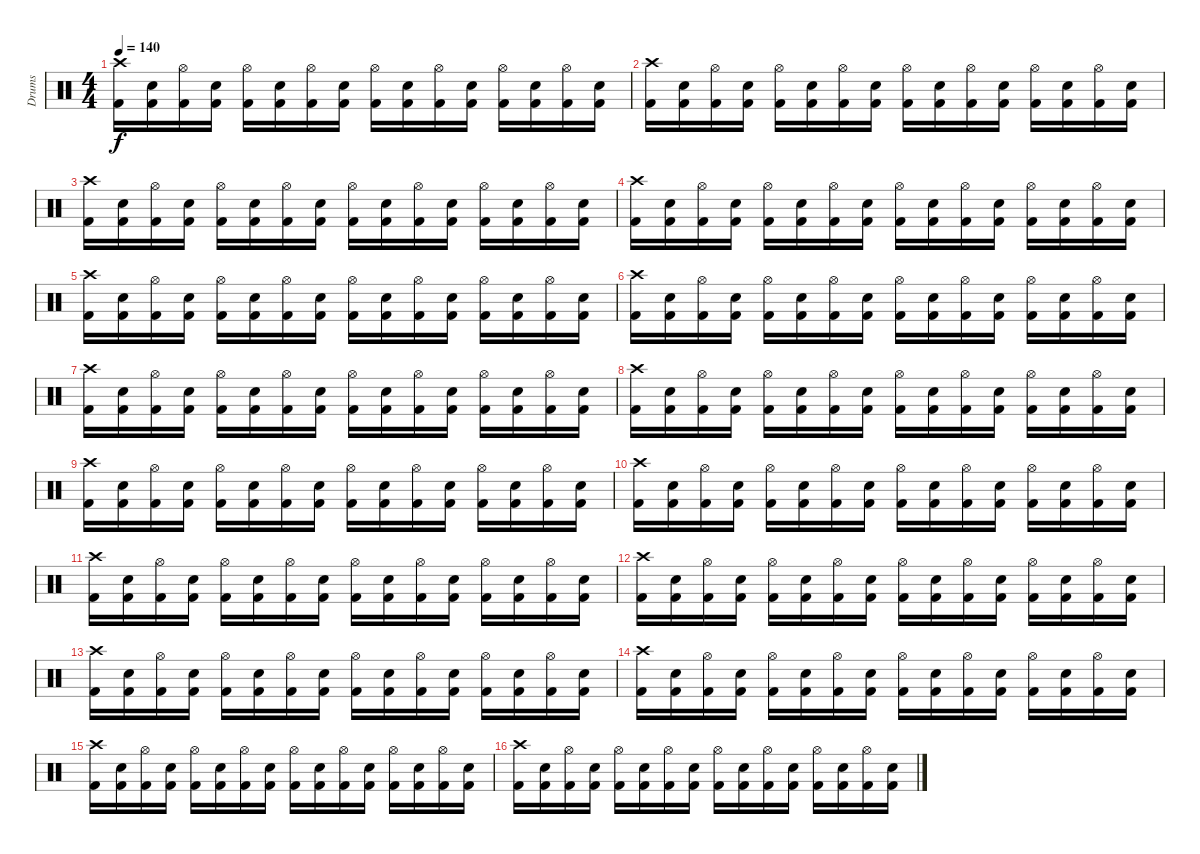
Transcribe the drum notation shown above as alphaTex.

\track ("Drums" "Drums") {instrument percussion}
\staff {score}
\articulation defaults
\ts (4 4)
\tempo 140
\clef neutral
\ks c
("Crash high (hit)" "Kick (hit) 2").16{dy f} ("Electric Snare (hit)" "Kick (hit) 2").16 ("Hi-Hat (open)" "Kick (hit) 2").16 ("Electric Snare (hit)" "Kick (hit) 2").16 ("Hi-Hat (open)" "Kick (hit) 2").16 ("Electric Snare (hit)" "Kick (hit) 2").16 ("Hi-Hat (open)" "Kick (hit) 2").16 ("Electric Snare (hit)" "Kick (hit) 2").16 ("Hi-Hat (open)" "Kick (hit) 2").16 ("Electric Snare (hit)" "Kick (hit) 2").16 ("Hi-Hat (open)" "Kick (hit) 2").16 ("Electric Snare (hit)" "Kick (hit) 2").16 ("Hi-Hat (open)" "Kick (hit) 2").16 ("Electric Snare (hit)" "Kick (hit) 2").16 ("Hi-Hat (open)" "Kick (hit) 2").16 ("Electric Snare (hit)" "Kick (hit) 2").16 |
("Crash high (hit)" "Kick (hit) 2").16 ("Electric Snare (hit)" "Kick (hit) 2").16 ("Hi-Hat (open)" "Kick (hit) 2").16 ("Electric Snare (hit)" "Kick (hit) 2").16 ("Hi-Hat (open)" "Kick (hit) 2").16 ("Electric Snare (hit)" "Kick (hit) 2").16 ("Hi-Hat (open)" "Kick (hit) 2").16 ("Electric Snare (hit)" "Kick (hit) 2").16 ("Hi-Hat (open)" "Kick (hit) 2").16 ("Electric Snare (hit)" "Kick (hit) 2").16 ("Hi-Hat (open)" "Kick (hit) 2").16 ("Electric Snare (hit)" "Kick (hit) 2").16 ("Hi-Hat (open)" "Kick (hit) 2").16 ("Electric Snare (hit)" "Kick (hit) 2").16 ("Hi-Hat (open)" "Kick (hit) 2").16 ("Electric Snare (hit)" "Kick (hit) 2").16 |
("Crash high (hit)" "Kick (hit) 2").16 ("Electric Snare (hit)" "Kick (hit) 2").16 ("Hi-Hat (open)" "Kick (hit) 2").16 ("Electric Snare (hit)" "Kick (hit) 2").16 ("Hi-Hat (open)" "Kick (hit) 2").16 ("Electric Snare (hit)" "Kick (hit) 2").16 ("Hi-Hat (open)" "Kick (hit) 2").16 ("Electric Snare (hit)" "Kick (hit) 2").16 ("Hi-Hat (open)" "Kick (hit) 2").16 ("Electric Snare (hit)" "Kick (hit) 2").16 ("Hi-Hat (open)" "Kick (hit) 2").16 ("Electric Snare (hit)" "Kick (hit) 2").16 ("Hi-Hat (open)" "Kick (hit) 2").16 ("Electric Snare (hit)" "Kick (hit) 2").16 ("Hi-Hat (open)" "Kick (hit) 2").16 ("Electric Snare (hit)" "Kick (hit) 2").16 |
("Crash high (hit)" "Kick (hit) 2").16 ("Electric Snare (hit)" "Kick (hit) 2").16 ("Hi-Hat (open)" "Kick (hit) 2").16 ("Electric Snare (hit)" "Kick (hit) 2").16 ("Hi-Hat (open)" "Kick (hit) 2").16 ("Electric Snare (hit)" "Kick (hit) 2").16 ("Hi-Hat (open)" "Kick (hit) 2").16 ("Electric Snare (hit)" "Kick (hit) 2").16 ("Hi-Hat (open)" "Kick (hit) 2").16 ("Electric Snare (hit)" "Kick (hit) 2").16 ("Hi-Hat (open)" "Kick (hit) 2").16 ("Electric Snare (hit)" "Kick (hit) 2").16 ("Hi-Hat (open)" "Kick (hit) 2").16 ("Electric Snare (hit)" "Kick (hit) 2").16 ("Hi-Hat (open)" "Kick (hit) 2").16 ("Electric Snare (hit)" "Kick (hit) 2").16 |
("Crash high (hit)" "Kick (hit) 2").16 ("Electric Snare (hit)" "Kick (hit) 2").16 ("Hi-Hat (open)" "Kick (hit) 2").16 ("Electric Snare (hit)" "Kick (hit) 2").16 ("Hi-Hat (open)" "Kick (hit) 2").16 ("Electric Snare (hit)" "Kick (hit) 2").16 ("Hi-Hat (open)" "Kick (hit) 2").16 ("Electric Snare (hit)" "Kick (hit) 2").16 ("Hi-Hat (open)" "Kick (hit) 2").16 ("Electric Snare (hit)" "Kick (hit) 2").16 ("Hi-Hat (open)" "Kick (hit) 2").16 ("Electric Snare (hit)" "Kick (hit) 2").16 ("Hi-Hat (open)" "Kick (hit) 2").16 ("Electric Snare (hit)" "Kick (hit) 2").16 ("Hi-Hat (open)" "Kick (hit) 2").16 ("Electric Snare (hit)" "Kick (hit) 2").16 |
("Crash high (hit)" "Kick (hit) 2").16 ("Electric Snare (hit)" "Kick (hit) 2").16 ("Hi-Hat (open)" "Kick (hit) 2").16 ("Electric Snare (hit)" "Kick (hit) 2").16 ("Hi-Hat (open)" "Kick (hit) 2").16 ("Electric Snare (hit)" "Kick (hit) 2").16 ("Hi-Hat (open)" "Kick (hit) 2").16 ("Electric Snare (hit)" "Kick (hit) 2").16 ("Hi-Hat (open)" "Kick (hit) 2").16 ("Electric Snare (hit)" "Kick (hit) 2").16 ("Hi-Hat (open)" "Kick (hit) 2").16 ("Electric Snare (hit)" "Kick (hit) 2").16 ("Hi-Hat (open)" "Kick (hit) 2").16 ("Electric Snare (hit)" "Kick (hit) 2").16 ("Hi-Hat (open)" "Kick (hit) 2").16 ("Electric Snare (hit)" "Kick (hit) 2").16 |
("Crash high (hit)" "Kick (hit) 2").16 ("Electric Snare (hit)" "Kick (hit) 2").16 ("Hi-Hat (open)" "Kick (hit) 2").16 ("Electric Snare (hit)" "Kick (hit) 2").16 ("Hi-Hat (open)" "Kick (hit) 2").16 ("Electric Snare (hit)" "Kick (hit) 2").16 ("Hi-Hat (open)" "Kick (hit) 2").16 ("Electric Snare (hit)" "Kick (hit) 2").16 ("Hi-Hat (open)" "Kick (hit) 2").16 ("Electric Snare (hit)" "Kick (hit) 2").16 ("Hi-Hat (open)" "Kick (hit) 2").16 ("Electric Snare (hit)" "Kick (hit) 2").16 ("Hi-Hat (open)" "Kick (hit) 2").16 ("Electric Snare (hit)" "Kick (hit) 2").16 ("Hi-Hat (open)" "Kick (hit) 2").16 ("Electric Snare (hit)" "Kick (hit) 2").16 |
("Crash high (hit)" "Kick (hit) 2").16 ("Electric Snare (hit)" "Kick (hit) 2").16 ("Hi-Hat (open)" "Kick (hit) 2").16 ("Electric Snare (hit)" "Kick (hit) 2").16 ("Hi-Hat (open)" "Kick (hit) 2").16 ("Electric Snare (hit)" "Kick (hit) 2").16 ("Hi-Hat (open)" "Kick (hit) 2").16 ("Electric Snare (hit)" "Kick (hit) 2").16 ("Hi-Hat (open)" "Kick (hit) 2").16 ("Electric Snare (hit)" "Kick (hit) 2").16 ("Hi-Hat (open)" "Kick (hit) 2").16 ("Electric Snare (hit)" "Kick (hit) 2").16 ("Hi-Hat (open)" "Kick (hit) 2").16 ("Electric Snare (hit)" "Kick (hit) 2").16 ("Hi-Hat (open)" "Kick (hit) 2").16 ("Electric Snare (hit)" "Kick (hit) 2").16 |
("Crash high (hit)" "Kick (hit) 2").16 ("Electric Snare (hit)" "Kick (hit) 2").16 ("Hi-Hat (open)" "Kick (hit) 2").16 ("Electric Snare (hit)" "Kick (hit) 2").16 ("Hi-Hat (open)" "Kick (hit) 2").16 ("Electric Snare (hit)" "Kick (hit) 2").16 ("Hi-Hat (open)" "Kick (hit) 2").16 ("Electric Snare (hit)" "Kick (hit) 2").16 ("Hi-Hat (open)" "Kick (hit) 2").16 ("Electric Snare (hit)" "Kick (hit) 2").16 ("Hi-Hat (open)" "Kick (hit) 2").16 ("Electric Snare (hit)" "Kick (hit) 2").16 ("Hi-Hat (open)" "Kick (hit) 2").16 ("Electric Snare (hit)" "Kick (hit) 2").16 ("Hi-Hat (open)" "Kick (hit) 2").16 ("Electric Snare (hit)" "Kick (hit) 2").16 |
("Crash high (hit)" "Kick (hit) 2").16 ("Electric Snare (hit)" "Kick (hit) 2").16 ("Hi-Hat (open)" "Kick (hit) 2").16 ("Electric Snare (hit)" "Kick (hit) 2").16 ("Hi-Hat (open)" "Kick (hit) 2").16 ("Electric Snare (hit)" "Kick (hit) 2").16 ("Hi-Hat (open)" "Kick (hit) 2").16 ("Electric Snare (hit)" "Kick (hit) 2").16 ("Hi-Hat (open)" "Kick (hit) 2").16 ("Electric Snare (hit)" "Kick (hit) 2").16 ("Hi-Hat (open)" "Kick (hit) 2").16 ("Electric Snare (hit)" "Kick (hit) 2").16 ("Hi-Hat (open)" "Kick (hit) 2").16 ("Electric Snare (hit)" "Kick (hit) 2").16 ("Hi-Hat (open)" "Kick (hit) 2").16 ("Electric Snare (hit)" "Kick (hit) 2").16 |
("Crash high (hit)" "Kick (hit) 2").16 ("Electric Snare (hit)" "Kick (hit) 2").16 ("Hi-Hat (open)" "Kick (hit) 2").16 ("Electric Snare (hit)" "Kick (hit) 2").16 ("Hi-Hat (open)" "Kick (hit) 2").16 ("Electric Snare (hit)" "Kick (hit) 2").16 ("Hi-Hat (open)" "Kick (hit) 2").16 ("Electric Snare (hit)" "Kick (hit) 2").16 ("Hi-Hat (open)" "Kick (hit) 2").16 ("Electric Snare (hit)" "Kick (hit) 2").16 ("Hi-Hat (open)" "Kick (hit) 2").16 ("Electric Snare (hit)" "Kick (hit) 2").16 ("Hi-Hat (open)" "Kick (hit) 2").16 ("Electric Snare (hit)" "Kick (hit) 2").16 ("Hi-Hat (open)" "Kick (hit) 2").16 ("Electric Snare (hit)" "Kick (hit) 2").16 |
("Crash high (hit)" "Kick (hit) 2").16 ("Electric Snare (hit)" "Kick (hit) 2").16 ("Hi-Hat (open)" "Kick (hit) 2").16 ("Electric Snare (hit)" "Kick (hit) 2").16 ("Hi-Hat (open)" "Kick (hit) 2").16 ("Electric Snare (hit)" "Kick (hit) 2").16 ("Hi-Hat (open)" "Kick (hit) 2").16 ("Electric Snare (hit)" "Kick (hit) 2").16 ("Hi-Hat (open)" "Kick (hit) 2").16 ("Electric Snare (hit)" "Kick (hit) 2").16 ("Hi-Hat (open)" "Kick (hit) 2").16 ("Electric Snare (hit)" "Kick (hit) 2").16 ("Hi-Hat (open)" "Kick (hit) 2").16 ("Electric Snare (hit)" "Kick (hit) 2").16 ("Hi-Hat (open)" "Kick (hit) 2").16 ("Electric Snare (hit)" "Kick (hit) 2").16 |
("Crash high (hit)" "Kick (hit) 2").16 ("Electric Snare (hit)" "Kick (hit) 2").16 ("Hi-Hat (open)" "Kick (hit) 2").16 ("Electric Snare (hit)" "Kick (hit) 2").16 ("Hi-Hat (open)" "Kick (hit) 2").16 ("Electric Snare (hit)" "Kick (hit) 2").16 ("Hi-Hat (open)" "Kick (hit) 2").16 ("Electric Snare (hit)" "Kick (hit) 2").16 ("Hi-Hat (open)" "Kick (hit) 2").16 ("Electric Snare (hit)" "Kick (hit) 2").16 ("Hi-Hat (open)" "Kick (hit) 2").16 ("Electric Snare (hit)" "Kick (hit) 2").16 ("Hi-Hat (open)" "Kick (hit) 2").16 ("Electric Snare (hit)" "Kick (hit) 2").16 ("Hi-Hat (open)" "Kick (hit) 2").16 ("Electric Snare (hit)" "Kick (hit) 2").16 |
("Crash high (hit)" "Kick (hit) 2").16 ("Electric Snare (hit)" "Kick (hit) 2").16 ("Hi-Hat (open)" "Kick (hit) 2").16 ("Electric Snare (hit)" "Kick (hit) 2").16 ("Hi-Hat (open)" "Kick (hit) 2").16 ("Electric Snare (hit)" "Kick (hit) 2").16 ("Hi-Hat (open)" "Kick (hit) 2").16 ("Electric Snare (hit)" "Kick (hit) 2").16 ("Hi-Hat (open)" "Kick (hit) 2").16 ("Electric Snare (hit)" "Kick (hit) 2").16 ("Hi-Hat (open)" "Kick (hit) 2").16 ("Electric Snare (hit)" "Kick (hit) 2").16 ("Hi-Hat (open)" "Kick (hit) 2").16 ("Electric Snare (hit)" "Kick (hit) 2").16 ("Hi-Hat (open)" "Kick (hit) 2").16 ("Electric Snare (hit)" "Kick (hit) 2").16 |
("Crash high (hit)" "Kick (hit) 2").16 ("Electric Snare (hit)" "Kick (hit) 2").16 ("Hi-Hat (open)" "Kick (hit) 2").16 ("Electric Snare (hit)" "Kick (hit) 2").16 ("Hi-Hat (open)" "Kick (hit) 2").16 ("Electric Snare (hit)" "Kick (hit) 2").16 ("Hi-Hat (open)" "Kick (hit) 2").16 ("Electric Snare (hit)" "Kick (hit) 2").16 ("Hi-Hat (open)" "Kick (hit) 2").16 ("Electric Snare (hit)" "Kick (hit) 2").16 ("Hi-Hat (open)" "Kick (hit) 2").16 ("Electric Snare (hit)" "Kick (hit) 2").16 ("Hi-Hat (open)" "Kick (hit) 2").16 ("Electric Snare (hit)" "Kick (hit) 2").16 ("Hi-Hat (open)" "Kick (hit) 2").16 ("Electric Snare (hit)" "Kick (hit) 2").16 |
("Crash high (hit)" "Kick (hit) 2").16 ("Electric Snare (hit)" "Kick (hit) 2").16 ("Hi-Hat (open)" "Kick (hit) 2").16 ("Electric Snare (hit)" "Kick (hit) 2").16 ("Hi-Hat (open)" "Kick (hit) 2").16 ("Electric Snare (hit)" "Kick (hit) 2").16 ("Hi-Hat (open)" "Kick (hit) 2").16 ("Electric Snare (hit)" "Kick (hit) 2").16 ("Hi-Hat (open)" "Kick (hit) 2").16 ("Electric Snare (hit)" "Kick (hit) 2").16 ("Hi-Hat (open)" "Kick (hit) 2").16 ("Electric Snare (hit)" "Kick (hit) 2").16 ("Hi-Hat (open)" "Kick (hit) 2").16 ("Electric Snare (hit)" "Kick (hit) 2").16 ("Hi-Hat (open)" "Kick (hit) 2").16 ("Electric Snare (hit)" "Kick (hit) 2").16
